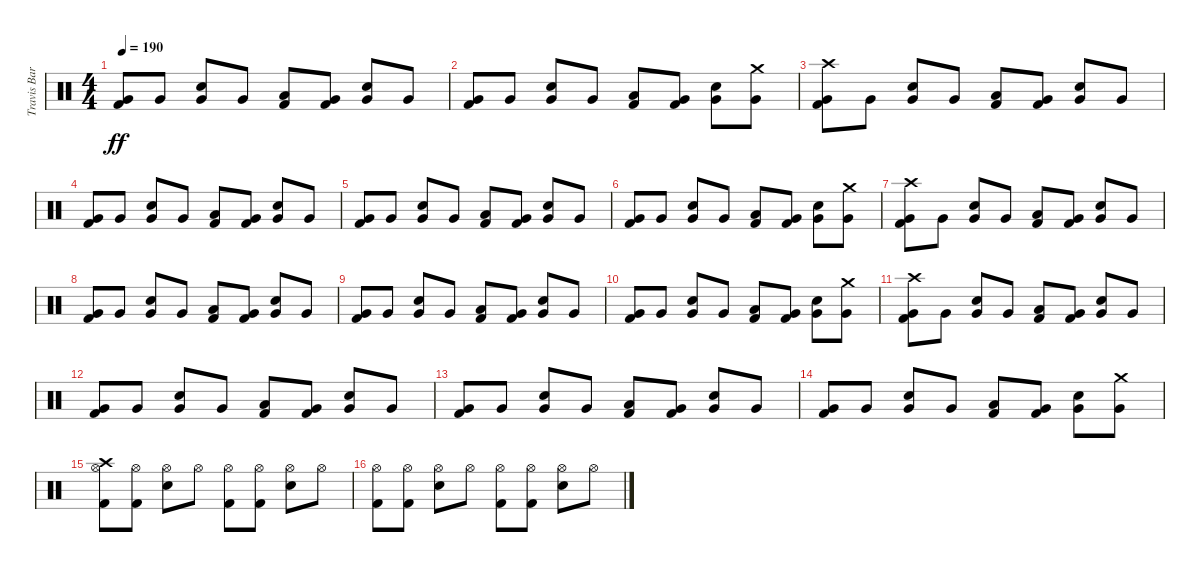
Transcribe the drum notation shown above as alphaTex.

\track ("Travis Barker - Drums" "Travis Bar") {instrument percussion}
\staff {score}
\articulation defaults
\ts (4 4)
\tempo 190
\clef neutral
\ks c
("Very Low Tom (hit)" "Kick (hit) 2").8{dy ff} "Very Low Tom (hit)".8 ("Very Low Tom (hit)" "Electric Snare (hit)").8 "Very Low Tom (hit)".8 ("Low Floor Tom (hit)" "Kick (hit) 2").8 ("Very Low Tom (hit)" "Kick (hit) 2").8 ("Very Low Tom (hit)" "Electric Snare (hit)").8 "Very Low Tom (hit)".8 |
("Very Low Tom (hit)" "Kick (hit) 2").8 "Very Low Tom (hit)".8 ("Very Low Tom (hit)" "Electric Snare (hit)").8 "Very Low Tom (hit)".8 ("Low Floor Tom (hit)" "Kick (hit) 2").8 ("Very Low Tom (hit)" "Kick (hit) 2").8 ("Very Low Tom (hit)" "Electric Snare (hit)").8 ("Crash medium (hit)" "Very Low Tom (hit)").8 |
("Crash high (hit)" "Very Low Tom (hit)" "Kick (hit) 2").8 "Very Low Tom (hit)".8 ("Very Low Tom (hit)" "Electric Snare (hit)").8 "Very Low Tom (hit)".8 ("Low Floor Tom (hit)" "Kick (hit) 2").8 ("Very Low Tom (hit)" "Kick (hit) 2").8 ("Very Low Tom (hit)" "Electric Snare (hit)").8 "Very Low Tom (hit)".8 |
("Very Low Tom (hit)" "Kick (hit) 2").8 "Very Low Tom (hit)".8 ("Very Low Tom (hit)" "Electric Snare (hit)").8 "Very Low Tom (hit)".8 ("Low Floor Tom (hit)" "Kick (hit) 2").8 ("Very Low Tom (hit)" "Kick (hit) 2").8 ("Very Low Tom (hit)" "Electric Snare (hit)").8 "Very Low Tom (hit)".8 |
("Very Low Tom (hit)" "Kick (hit) 2").8 "Very Low Tom (hit)".8 ("Very Low Tom (hit)" "Electric Snare (hit)").8 "Very Low Tom (hit)".8 ("Low Floor Tom (hit)" "Kick (hit) 2").8 ("Very Low Tom (hit)" "Kick (hit) 2").8 ("Very Low Tom (hit)" "Electric Snare (hit)").8 "Very Low Tom (hit)".8 |
("Very Low Tom (hit)" "Kick (hit) 2").8 "Very Low Tom (hit)".8 ("Very Low Tom (hit)" "Electric Snare (hit)").8 "Very Low Tom (hit)".8 ("Low Floor Tom (hit)" "Kick (hit) 2").8 ("Very Low Tom (hit)" "Kick (hit) 2").8 ("Very Low Tom (hit)" "Electric Snare (hit)").8 ("Crash medium (hit)" "Very Low Tom (hit)").8 |
("Crash high (hit)" "Very Low Tom (hit)" "Kick (hit) 2").8 "Very Low Tom (hit)".8 ("Very Low Tom (hit)" "Electric Snare (hit)").8 "Very Low Tom (hit)".8 ("Low Floor Tom (hit)" "Kick (hit) 2").8 ("Very Low Tom (hit)" "Kick (hit) 2").8 ("Very Low Tom (hit)" "Electric Snare (hit)").8 "Very Low Tom (hit)".8 |
("Very Low Tom (hit)" "Kick (hit) 2").8 "Very Low Tom (hit)".8 ("Very Low Tom (hit)" "Electric Snare (hit)").8 "Very Low Tom (hit)".8 ("Low Floor Tom (hit)" "Kick (hit) 2").8 ("Very Low Tom (hit)" "Kick (hit) 2").8 ("Very Low Tom (hit)" "Electric Snare (hit)").8 "Very Low Tom (hit)".8 |
("Very Low Tom (hit)" "Kick (hit) 2").8 "Very Low Tom (hit)".8 ("Very Low Tom (hit)" "Electric Snare (hit)").8 "Very Low Tom (hit)".8 ("Low Floor Tom (hit)" "Kick (hit) 2").8 ("Very Low Tom (hit)" "Kick (hit) 2").8 ("Very Low Tom (hit)" "Electric Snare (hit)").8 "Very Low Tom (hit)".8 |
("Very Low Tom (hit)" "Kick (hit) 2").8 "Very Low Tom (hit)".8 ("Very Low Tom (hit)" "Electric Snare (hit)").8 "Very Low Tom (hit)".8 ("Low Floor Tom (hit)" "Kick (hit) 2").8 ("Very Low Tom (hit)" "Kick (hit) 2").8 ("Very Low Tom (hit)" "Electric Snare (hit)").8 ("Crash medium (hit)" "Very Low Tom (hit)").8 |
("Crash high (hit)" "Very Low Tom (hit)" "Kick (hit) 2").8 "Very Low Tom (hit)".8 ("Very Low Tom (hit)" "Electric Snare (hit)").8 "Very Low Tom (hit)".8 ("Low Floor Tom (hit)" "Kick (hit) 2").8 ("Very Low Tom (hit)" "Kick (hit) 2").8 ("Very Low Tom (hit)" "Electric Snare (hit)").8 "Very Low Tom (hit)".8 |
("Very Low Tom (hit)" "Kick (hit) 2").8 "Very Low Tom (hit)".8 ("Very Low Tom (hit)" "Electric Snare (hit)").8 "Very Low Tom (hit)".8 ("Low Floor Tom (hit)" "Kick (hit) 2").8 ("Very Low Tom (hit)" "Kick (hit) 2").8 ("Very Low Tom (hit)" "Electric Snare (hit)").8 "Very Low Tom (hit)".8 |
("Very Low Tom (hit)" "Kick (hit) 2").8 "Very Low Tom (hit)".8 ("Very Low Tom (hit)" "Electric Snare (hit)").8 "Very Low Tom (hit)".8 ("Low Floor Tom (hit)" "Kick (hit) 2").8 ("Very Low Tom (hit)" "Kick (hit) 2").8 ("Very Low Tom (hit)" "Electric Snare (hit)").8 "Very Low Tom (hit)".8 |
("Very Low Tom (hit)" "Kick (hit) 2").8 "Very Low Tom (hit)".8 ("Very Low Tom (hit)" "Electric Snare (hit)").8 "Very Low Tom (hit)".8 ("Low Floor Tom (hit)" "Kick (hit) 2").8 ("Very Low Tom (hit)" "Kick (hit) 2").8 ("Very Low Tom (hit)" "Electric Snare (hit)").8 ("Crash medium (hit)" "Very Low Tom (hit)").8 |
("Crash high (hit)" "Hi-Hat (open)" "Kick (hit) 2").8 ("Hi-Hat (open)" "Kick (hit) 2").8 ("Hi-Hat (open)" "Electric Snare (hit)").8 "Hi-Hat (open)".8 ("Hi-Hat (open)" "Kick (hit) 2").8 ("Hi-Hat (open)" "Kick (hit) 2").8 ("Hi-Hat (open)" "Electric Snare (hit)").8 "Hi-Hat (open)".8 |
("Hi-Hat (open)" "Kick (hit) 2").8 ("Hi-Hat (open)" "Kick (hit) 2").8 ("Hi-Hat (open)" "Electric Snare (hit)").8 "Hi-Hat (open)".8 ("Hi-Hat (open)" "Kick (hit) 2").8 ("Hi-Hat (open)" "Kick (hit) 2").8 ("Hi-Hat (open)" "Electric Snare (hit)").8 "Hi-Hat (open)".8
